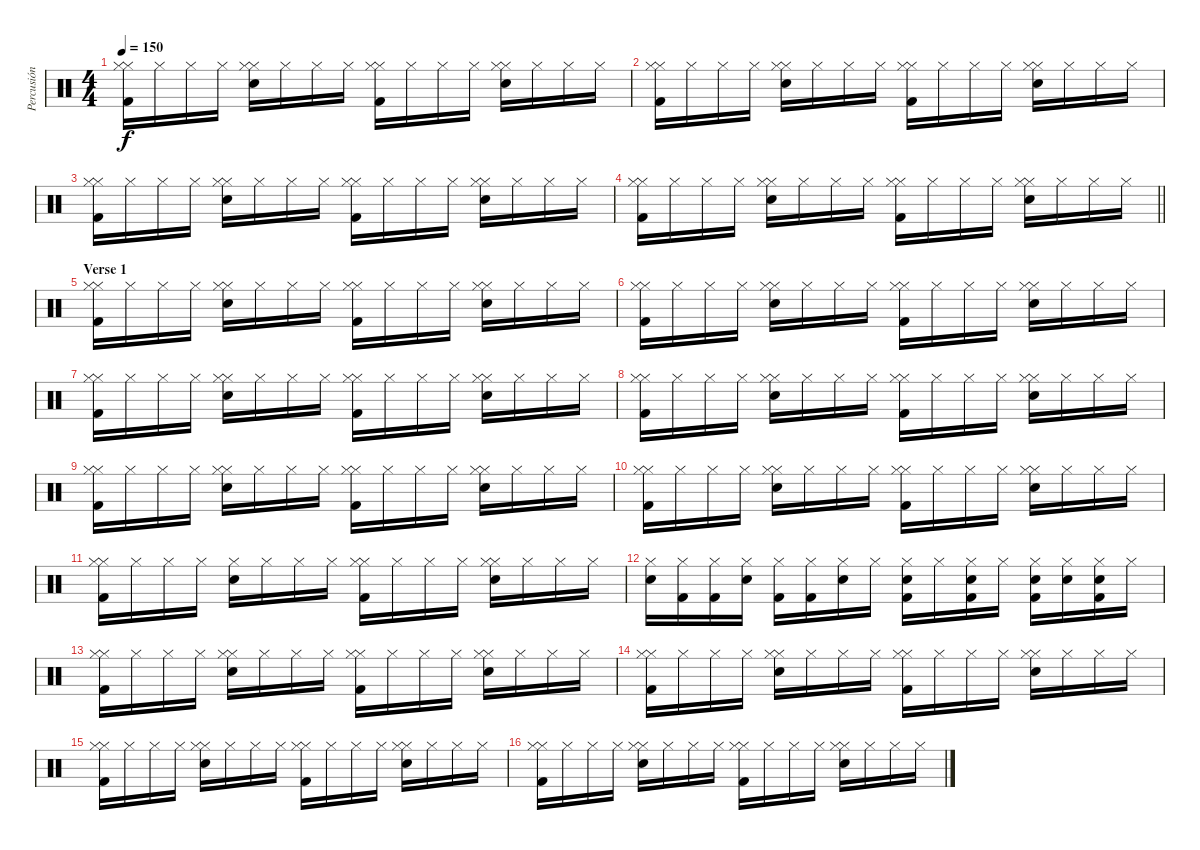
\track ("Percusión" "Percusión") {instrument percussion}
\staff {score}
\articulation defaults
\ts (4 4)
\tempo 150
\clef neutral
\ks c
("Kick (hit) 2" "Hi-Hat (closed)" "Hi-Hat (closed)").16{dy f} "Hi-Hat (closed)".16 "Hi-Hat (closed)".16 "Hi-Hat (closed)".16 ("Hi-Hat (closed)" "Electric Snare (hit)" "Hi-Hat (closed)").16 "Hi-Hat (closed)".16 "Hi-Hat (closed)".16 "Hi-Hat (closed)".16 ("Kick (hit) 2" "Hi-Hat (closed)" "Hi-Hat (closed)").16 "Hi-Hat (closed)".16 "Hi-Hat (closed)".16 "Hi-Hat (closed)".16 ("Hi-Hat (closed)" "Electric Snare (hit)" "Hi-Hat (closed)").16 "Hi-Hat (closed)".16 "Hi-Hat (closed)".16 "Hi-Hat (closed)".16 |
("Kick (hit) 2" "Hi-Hat (closed)" "Hi-Hat (closed)").16 "Hi-Hat (closed)".16 "Hi-Hat (closed)".16 "Hi-Hat (closed)".16 ("Hi-Hat (closed)" "Electric Snare (hit)" "Hi-Hat (closed)").16 "Hi-Hat (closed)".16 "Hi-Hat (closed)".16 "Hi-Hat (closed)".16 ("Kick (hit) 2" "Hi-Hat (closed)" "Hi-Hat (closed)").16 "Hi-Hat (closed)".16 "Hi-Hat (closed)".16 "Hi-Hat (closed)".16 ("Hi-Hat (closed)" "Electric Snare (hit)" "Hi-Hat (closed)").16 "Hi-Hat (closed)".16 "Hi-Hat (closed)".16 "Hi-Hat (closed)".16 |
("Kick (hit) 2" "Hi-Hat (closed)" "Hi-Hat (closed)").16 "Hi-Hat (closed)".16 "Hi-Hat (closed)".16 "Hi-Hat (closed)".16 ("Hi-Hat (closed)" "Electric Snare (hit)" "Hi-Hat (closed)").16 "Hi-Hat (closed)".16 "Hi-Hat (closed)".16 "Hi-Hat (closed)".16 ("Kick (hit) 2" "Hi-Hat (closed)" "Hi-Hat (closed)").16 "Hi-Hat (closed)".16 "Hi-Hat (closed)".16 "Hi-Hat (closed)".16 ("Hi-Hat (closed)" "Electric Snare (hit)" "Hi-Hat (closed)").16 "Hi-Hat (closed)".16 "Hi-Hat (closed)".16 "Hi-Hat (closed)".16 |
\barLineRight lightlight
("Kick (hit) 2" "Hi-Hat (closed)" "Hi-Hat (closed)").16 "Hi-Hat (closed)".16 "Hi-Hat (closed)".16 "Hi-Hat (closed)".16 ("Hi-Hat (closed)" "Electric Snare (hit)" "Hi-Hat (closed)").16 "Hi-Hat (closed)".16 "Hi-Hat (closed)".16 "Hi-Hat (closed)".16 ("Kick (hit) 2" "Hi-Hat (closed)" "Hi-Hat (closed)").16 "Hi-Hat (closed)".16 "Hi-Hat (closed)".16 "Hi-Hat (closed)".16 ("Hi-Hat (closed)" "Electric Snare (hit)" "Hi-Hat (closed)").16 "Hi-Hat (closed)".16 "Hi-Hat (closed)".16 "Hi-Hat (closed)".16 |
\section ("" "Verse 1")
("Kick (hit) 2" "Hi-Hat (closed)" "Hi-Hat (closed)").16 "Hi-Hat (closed)".16 "Hi-Hat (closed)".16 "Hi-Hat (closed)".16 ("Hi-Hat (closed)" "Electric Snare (hit)" "Hi-Hat (closed)").16 "Hi-Hat (closed)".16 "Hi-Hat (closed)".16 "Hi-Hat (closed)".16 ("Kick (hit) 2" "Hi-Hat (closed)" "Hi-Hat (closed)").16 "Hi-Hat (closed)".16 "Hi-Hat (closed)".16 "Hi-Hat (closed)".16 ("Hi-Hat (closed)" "Electric Snare (hit)" "Hi-Hat (closed)").16 "Hi-Hat (closed)".16 "Hi-Hat (closed)".16 "Hi-Hat (closed)".16 |
("Kick (hit) 2" "Hi-Hat (closed)" "Hi-Hat (closed)").16 "Hi-Hat (closed)".16 "Hi-Hat (closed)".16 "Hi-Hat (closed)".16 ("Hi-Hat (closed)" "Electric Snare (hit)" "Hi-Hat (closed)").16 "Hi-Hat (closed)".16 "Hi-Hat (closed)".16 "Hi-Hat (closed)".16 ("Kick (hit) 2" "Hi-Hat (closed)" "Hi-Hat (closed)").16 "Hi-Hat (closed)".16 "Hi-Hat (closed)".16 "Hi-Hat (closed)".16 ("Hi-Hat (closed)" "Electric Snare (hit)" "Hi-Hat (closed)").16 "Hi-Hat (closed)".16 "Hi-Hat (closed)".16 "Hi-Hat (closed)".16 |
("Kick (hit) 2" "Hi-Hat (closed)" "Hi-Hat (closed)").16 "Hi-Hat (closed)".16 "Hi-Hat (closed)".16 "Hi-Hat (closed)".16 ("Hi-Hat (closed)" "Electric Snare (hit)" "Hi-Hat (closed)").16 "Hi-Hat (closed)".16 "Hi-Hat (closed)".16 "Hi-Hat (closed)".16 ("Kick (hit) 2" "Hi-Hat (closed)" "Hi-Hat (closed)").16 "Hi-Hat (closed)".16 "Hi-Hat (closed)".16 "Hi-Hat (closed)".16 ("Hi-Hat (closed)" "Electric Snare (hit)" "Hi-Hat (closed)").16 "Hi-Hat (closed)".16 "Hi-Hat (closed)".16 "Hi-Hat (closed)".16 |
("Kick (hit) 2" "Hi-Hat (closed)" "Hi-Hat (closed)").16 "Hi-Hat (closed)".16 "Hi-Hat (closed)".16 "Hi-Hat (closed)".16 ("Hi-Hat (closed)" "Electric Snare (hit)" "Hi-Hat (closed)").16 "Hi-Hat (closed)".16 "Hi-Hat (closed)".16 "Hi-Hat (closed)".16 ("Kick (hit) 2" "Hi-Hat (closed)" "Hi-Hat (closed)").16 "Hi-Hat (closed)".16 "Hi-Hat (closed)".16 "Hi-Hat (closed)".16 ("Hi-Hat (closed)" "Electric Snare (hit)" "Hi-Hat (closed)").16 "Hi-Hat (closed)".16 "Hi-Hat (closed)".16 "Hi-Hat (closed)".16 |
("Kick (hit) 2" "Hi-Hat (closed)" "Hi-Hat (closed)").16 "Hi-Hat (closed)".16 "Hi-Hat (closed)".16 "Hi-Hat (closed)".16 ("Hi-Hat (closed)" "Electric Snare (hit)" "Hi-Hat (closed)").16 "Hi-Hat (closed)".16 "Hi-Hat (closed)".16 "Hi-Hat (closed)".16 ("Kick (hit) 2" "Hi-Hat (closed)" "Hi-Hat (closed)").16 "Hi-Hat (closed)".16 "Hi-Hat (closed)".16 "Hi-Hat (closed)".16 ("Hi-Hat (closed)" "Electric Snare (hit)" "Hi-Hat (closed)").16 "Hi-Hat (closed)".16 "Hi-Hat (closed)".16 "Hi-Hat (closed)".16 |
("Kick (hit) 2" "Hi-Hat (closed)" "Hi-Hat (closed)").16 "Hi-Hat (closed)".16 "Hi-Hat (closed)".16 "Hi-Hat (closed)".16 ("Hi-Hat (closed)" "Electric Snare (hit)" "Hi-Hat (closed)").16 "Hi-Hat (closed)".16 "Hi-Hat (closed)".16 "Hi-Hat (closed)".16 ("Kick (hit) 2" "Hi-Hat (closed)" "Hi-Hat (closed)").16 "Hi-Hat (closed)".16 "Hi-Hat (closed)".16 "Hi-Hat (closed)".16 ("Hi-Hat (closed)" "Electric Snare (hit)" "Hi-Hat (closed)").16 "Hi-Hat (closed)".16 "Hi-Hat (closed)".16 "Hi-Hat (closed)".16 |
("Kick (hit) 2" "Hi-Hat (closed)" "Hi-Hat (closed)").16 "Hi-Hat (closed)".16 "Hi-Hat (closed)".16 "Hi-Hat (closed)".16 ("Electric Snare (hit)" "Hi-Hat (closed)").16 "Hi-Hat (closed)".16 "Hi-Hat (closed)".16 "Hi-Hat (closed)".16 ("Kick (hit) 2" "Hi-Hat (closed)" "Hi-Hat (closed)").16 "Hi-Hat (closed)".16 "Hi-Hat (closed)".16 "Hi-Hat (closed)".16 ("Hi-Hat (closed)" "Electric Snare (hit)" "Hi-Hat (closed)").16 "Hi-Hat (closed)".16 "Hi-Hat (closed)".16 "Hi-Hat (closed)".16 |
("Electric Snare (hit)" "Hi-Hat (closed)").16 ("Kick (hit) 2" "Hi-Hat (closed)").16 ("Kick (hit) 2" "Hi-Hat (closed)").16 ("Electric Snare (hit)" "Hi-Hat (closed)").16 ("Kick (hit) 2" "Hi-Hat (closed)").16 ("Kick (hit) 2" "Hi-Hat (closed)").16 ("Electric Snare (hit)" "Hi-Hat (closed)").16 "Hi-Hat (closed)".16 ("Electric Snare (hit)" "Kick (hit) 2" "Hi-Hat (closed)").16 "Hi-Hat (closed)".16 ("Electric Snare (hit)" "Kick (hit) 2" "Hi-Hat (closed)").16 "Hi-Hat (closed)".16 ("Electric Snare (hit)" "Kick (hit) 2" "Hi-Hat (closed)").16 ("Electric Snare (hit)" "Hi-Hat (closed)").16 ("Electric Snare (hit)" "Kick (hit) 2" "Hi-Hat (closed)").16 "Hi-Hat (closed)".16 |
("Kick (hit) 2" "Hi-Hat (closed)" "Hi-Hat (closed)").16 "Hi-Hat (closed)".16 "Hi-Hat (closed)".16 "Hi-Hat (closed)".16 ("Hi-Hat (closed)" "Electric Snare (hit)" "Hi-Hat (closed)").16 "Hi-Hat (closed)".16 "Hi-Hat (closed)".16 "Hi-Hat (closed)".16 ("Kick (hit) 2" "Hi-Hat (closed)" "Hi-Hat (closed)").16 "Hi-Hat (closed)".16 "Hi-Hat (closed)".16 "Hi-Hat (closed)".16 ("Hi-Hat (closed)" "Electric Snare (hit)" "Hi-Hat (closed)").16 "Hi-Hat (closed)".16 "Hi-Hat (closed)".16 "Hi-Hat (closed)".16 |
("Kick (hit) 2" "Hi-Hat (closed)" "Hi-Hat (closed)").16 "Hi-Hat (closed)".16 "Hi-Hat (closed)".16 "Hi-Hat (closed)".16 ("Hi-Hat (closed)" "Electric Snare (hit)" "Hi-Hat (closed)").16 "Hi-Hat (closed)".16 "Hi-Hat (closed)".16 "Hi-Hat (closed)".16 ("Kick (hit) 2" "Hi-Hat (closed)" "Hi-Hat (closed)").16 "Hi-Hat (closed)".16 "Hi-Hat (closed)".16 "Hi-Hat (closed)".16 ("Hi-Hat (closed)" "Electric Snare (hit)" "Hi-Hat (closed)").16 "Hi-Hat (closed)".16 "Hi-Hat (closed)".16 "Hi-Hat (closed)".16 |
("Kick (hit) 2" "Hi-Hat (closed)" "Hi-Hat (closed)").16 "Hi-Hat (closed)".16 "Hi-Hat (closed)".16 "Hi-Hat (closed)".16 ("Hi-Hat (closed)" "Electric Snare (hit)" "Hi-Hat (closed)").16 "Hi-Hat (closed)".16 "Hi-Hat (closed)".16 "Hi-Hat (closed)".16 ("Kick (hit) 2" "Hi-Hat (closed)" "Hi-Hat (closed)").16 "Hi-Hat (closed)".16 "Hi-Hat (closed)".16 "Hi-Hat (closed)".16 ("Hi-Hat (closed)" "Electric Snare (hit)" "Hi-Hat (closed)").16 "Hi-Hat (closed)".16 "Hi-Hat (closed)".16 "Hi-Hat (closed)".16 |
("Kick (hit) 2" "Hi-Hat (closed)" "Hi-Hat (closed)").16 "Hi-Hat (closed)".16 "Hi-Hat (closed)".16 "Hi-Hat (closed)".16 ("Hi-Hat (closed)" "Electric Snare (hit)" "Hi-Hat (closed)").16 "Hi-Hat (closed)".16 "Hi-Hat (closed)".16 "Hi-Hat (closed)".16 ("Kick (hit) 2" "Hi-Hat (closed)" "Hi-Hat (closed)").16 "Hi-Hat (closed)".16 "Hi-Hat (closed)".16 "Hi-Hat (closed)".16 ("Hi-Hat (closed)" "Electric Snare (hit)" "Hi-Hat (closed)").16 "Hi-Hat (closed)".16 "Hi-Hat (closed)".16 "Hi-Hat (closed)".16
